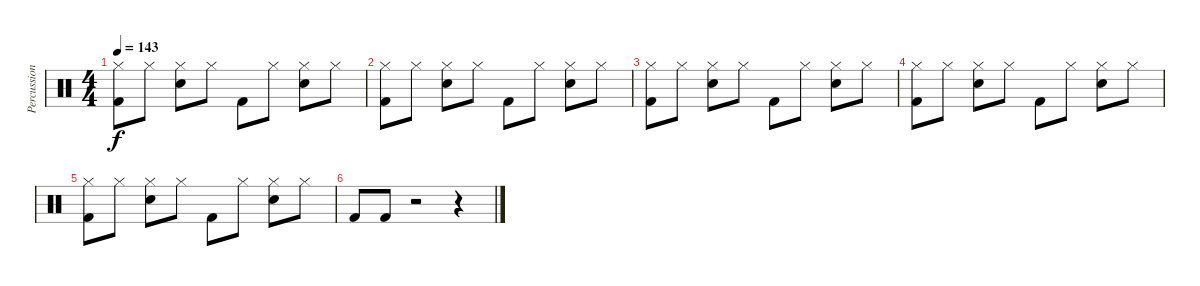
\track ("Percussion" "Percussion") {instrument percussion}
\staff {score}
\articulation defaults
\ts (4 4)
\tempo 143
\clef neutral
\ks c
("Hi-Hat (closed)" "Kick (hit) 2").8{dy f} "Hi-Hat (closed)".8 ("Hi-Hat (closed)" "Electric Snare (hit)").8 "Hi-Hat (closed)".8 "Kick (hit) 2".8 "Hi-Hat (closed)".8 ("Hi-Hat (closed)" "Electric Snare (hit)").8 "Hi-Hat (closed)".8 |
("Hi-Hat (closed)" "Kick (hit) 2").8 "Hi-Hat (closed)".8 ("Hi-Hat (closed)" "Electric Snare (hit)").8 "Hi-Hat (closed)".8 "Kick (hit) 2".8 "Hi-Hat (closed)".8 ("Hi-Hat (closed)" "Electric Snare (hit)").8 "Hi-Hat (closed)".8 |
("Hi-Hat (closed)" "Kick (hit) 2").8 "Hi-Hat (closed)".8 ("Hi-Hat (closed)" "Electric Snare (hit)").8 "Hi-Hat (closed)".8 "Kick (hit) 2".8 "Hi-Hat (closed)".8 ("Hi-Hat (closed)" "Electric Snare (hit)").8 "Hi-Hat (closed)".8 |
("Hi-Hat (closed)" "Kick (hit) 2").8 "Hi-Hat (closed)".8 ("Hi-Hat (closed)" "Electric Snare (hit)").8 "Hi-Hat (closed)".8 "Kick (hit) 2".8 "Hi-Hat (closed)".8 ("Hi-Hat (closed)" "Electric Snare (hit)").8 "Hi-Hat (closed)".8 |
("Hi-Hat (closed)" "Kick (hit) 2").8 "Hi-Hat (closed)".8 ("Hi-Hat (closed)" "Electric Snare (hit)").8 "Hi-Hat (closed)".8 "Kick (hit) 2".8 "Hi-Hat (closed)".8 ("Hi-Hat (closed)" "Electric Snare (hit)").8 "Hi-Hat (closed)".8 |
"Kick (hit) 2".8 "Kick (hit) 2".8 r.2 r.4
